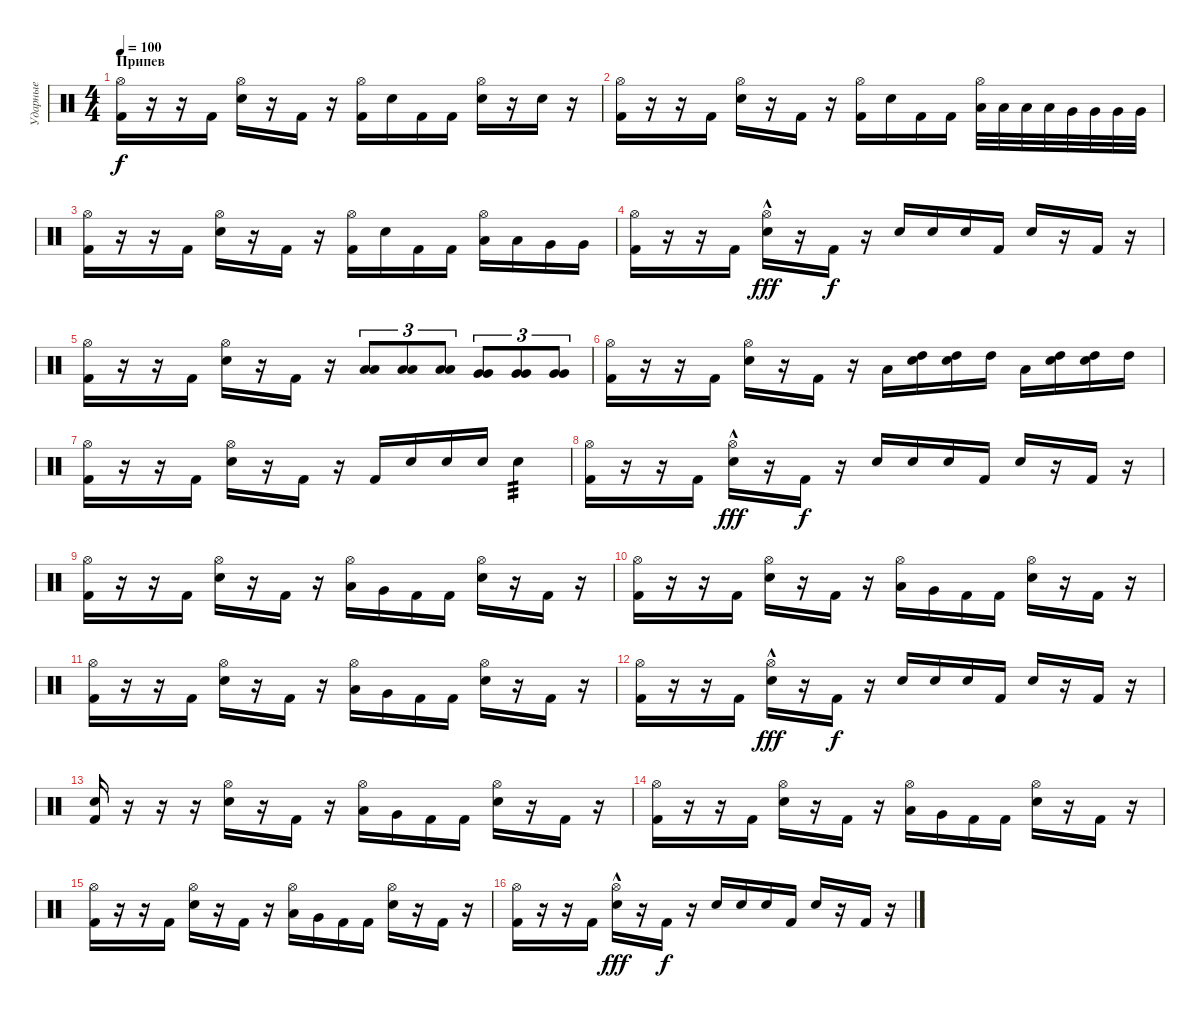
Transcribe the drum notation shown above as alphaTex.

\track ("Ударные" "Ударные") {instrument percussion}
\staff {score}
\articulation defaults
\ts (4 4)
\section ("" "Припев")
\tempo 100
\clef neutral
\ks c
("Kick (hit) 2" "Hi-Hat (open)").16{dy f} r.16 r.16 "Kick (hit) 2".16 ("Electric Snare (hit)" "Hi-Hat (open)").16 r.16 "Kick (hit) 2".16 r.16 ("Kick (hit) 2" "Hi-Hat (open)").16 "Electric Snare (hit)".16 "Kick (hit) 2".16 "Kick (hit) 2".16 ("Electric Snare (hit)" "Hi-Hat (open)").16 r.16 "Electric Snare (hit)".16 r.16 |
("Kick (hit) 2" "Hi-Hat (open)").16 r.16 r.16 "Kick (hit) 2".16 ("Electric Snare (hit)" "Hi-Hat (open)").16 r.16 "Kick (hit) 2".16 r.16 ("Kick (hit) 2" "Hi-Hat (open)").16 "Electric Snare (hit)".16 "Kick (hit) 2".16 "Kick (hit) 2".16 ("Low Tom (hit)" "Hi-Hat (open)").32 "Low Tom (hit)".32 "Low Tom (hit)".32 "Low Tom (hit)".32 "Very Low Tom (hit)".32 "Very Low Tom (hit)".32 "Very Low Tom (hit)".32 "Very Low Tom (hit)".32 |
("Kick (hit) 2" "Hi-Hat (open)").16 r.16 r.16 "Kick (hit) 2".16 ("Electric Snare (hit)" "Hi-Hat (open)").16 r.16 "Kick (hit) 2".16 r.16 ("Kick (hit) 2" "Hi-Hat (open)").16 "Electric Snare (hit)".16 "Kick (hit) 2".16 "Kick (hit) 2".16 ("Low Tom (hit)" "Hi-Hat (open)").16 "Low Tom (hit)".16 "Very Low Tom (hit)".16 "Very Low Tom (hit)".16 |
("Kick (hit) 2" "Hi-Hat (open)").16 r.16 r.16 "Kick (hit) 2".16 ("Electric Snare (hit)"{hac} "Hi-Hat (open)").16{dy fff} r.16 "Kick (hit) 2".16{dy f} r.16 "Electric Snare (hit)".16 "Electric Snare (hit)".16 "Electric Snare (hit)".16 "Kick (hit) 2".16 "Electric Snare (hit)".16 r.16 "Kick (hit) 2".16 r.16 |
("Kick (hit) 2" "Hi-Hat (open)").16 r.16 r.16 "Kick (hit) 2".16 ("Electric Snare (hit)" "Hi-Hat (open)").16 r.16 "Kick (hit) 2".16 r.16 ("Low Tom (hit)" "Low Tom (hit)").8{tu (3 2) bu 240} ("Low Tom (hit)" "Low Tom (hit)").8{tu (3 2) bu 240} ("Low Tom (hit)" "Low Tom (hit)").8{tu (3 2) bu 240} ("Very Low Tom (hit)" "Very Low Tom (hit)").8{tu (3 2) bu 240} ("Very Low Tom (hit)" "Very Low Tom (hit)").8{tu (3 2) bu 240} ("Very Low Tom (hit)" "Very Low Tom (hit)").8{tu (3 2) bu 240} |
("Kick (hit) 2" "Hi-Hat (open)").16 r.16 r.16 "Kick (hit) 2".16 ("Electric Snare (hit)" "Hi-Hat (open)").16 r.16 "Kick (hit) 2".16 r.16 "Low Tom (hit)".16 ("High Tom (hit)" "Electric Snare (hit)").16 ("High Tom (hit)" "Electric Snare (hit)").16 "High Tom (hit)".16 "Low Tom (hit)".16 ("High Tom (hit)" "Electric Snare (hit)").16 ("High Tom (hit)" "Electric Snare (hit)").16 "High Tom (hit)".16 |
("Kick (hit) 2" "Hi-Hat (open)").16 r.16 r.16 "Kick (hit) 2".16 ("Electric Snare (hit)" "Hi-Hat (open)").16 r.16 "Kick (hit) 2".16 r.16 "Kick (hit) 2".16 "Electric Snare (hit)".16 "Electric Snare (hit)".16 "Electric Snare (hit)".16 "Electric Snare (hit)".4{tp 3} |
("Kick (hit) 2" "Hi-Hat (open)").16 r.16 r.16 "Kick (hit) 2".16 ("Electric Snare (hit)"{hac} "Hi-Hat (open)").16{dy fff} r.16 "Kick (hit) 2".16{dy f} r.16 "Electric Snare (hit)".16 "Electric Snare (hit)".16 "Electric Snare (hit)".16 "Kick (hit) 2".16 "Electric Snare (hit)".16 r.16 "Kick (hit) 2".16 r.16 |
("Kick (hit) 2" "Hi-Hat (open)").16 r.16 r.16 "Kick (hit) 2".16 ("Electric Snare (hit)" "Hi-Hat (open)").16 r.16 "Kick (hit) 2".16 r.16 ("Low Tom (hit)" "Hi-Hat (open)").16 "Very Low Tom (hit)".16 "Kick (hit) 2".16 "Kick (hit) 2".16 ("Electric Snare (hit)" "Hi-Hat (open)").16 r.16 "Kick (hit) 2".16 r.16 |
("Kick (hit) 2" "Hi-Hat (open)").16 r.16 r.16 "Kick (hit) 2".16 ("Electric Snare (hit)" "Hi-Hat (open)").16 r.16 "Kick (hit) 2".16 r.16 ("Low Tom (hit)" "Hi-Hat (open)").16 "Very Low Tom (hit)".16 "Kick (hit) 2".16 "Kick (hit) 2".16 ("Electric Snare (hit)" "Hi-Hat (open)").16 r.16 "Kick (hit) 2".16 r.16 |
("Kick (hit) 2" "Hi-Hat (open)").16 r.16 r.16 "Kick (hit) 2".16 ("Electric Snare (hit)" "Hi-Hat (open)").16 r.16 "Kick (hit) 2".16 r.16 ("Low Tom (hit)" "Hi-Hat (open)").16 "Very Low Tom (hit)".16 "Kick (hit) 2".16 "Kick (hit) 2".16 ("Electric Snare (hit)" "Hi-Hat (open)").16 r.16 "Kick (hit) 2".16 r.16 |
("Kick (hit) 2" "Hi-Hat (open)").16 r.16 r.16 "Kick (hit) 2".16 ("Electric Snare (hit)"{hac} "Hi-Hat (open)").16{dy fff} r.16 "Kick (hit) 2".16{dy f} r.16 "Electric Snare (hit)".16 "Electric Snare (hit)".16 "Electric Snare (hit)".16 "Kick (hit) 2".16 "Electric Snare (hit)".16 r.16 "Kick (hit) 2".16 r.16 |
("Kick (hit) 2" "Electric Snare (hit)").16 r.16 r.16 r.16 ("Electric Snare (hit)" "Hi-Hat (open)").16 r.16 "Kick (hit) 2".16 r.16 ("Low Tom (hit)" "Hi-Hat (open)").16 "Very Low Tom (hit)".16 "Kick (hit) 2".16 "Kick (hit) 2".16 ("Electric Snare (hit)" "Hi-Hat (open)").16 r.16 "Kick (hit) 2".16 r.16 |
("Kick (hit) 2" "Hi-Hat (open)").16 r.16 r.16 "Kick (hit) 2".16 ("Electric Snare (hit)" "Hi-Hat (open)").16 r.16 "Kick (hit) 2".16 r.16 ("Low Tom (hit)" "Hi-Hat (open)").16 "Very Low Tom (hit)".16 "Kick (hit) 2".16 "Kick (hit) 2".16 ("Electric Snare (hit)" "Hi-Hat (open)").16 r.16 "Kick (hit) 2".16 r.16 |
("Kick (hit) 2" "Hi-Hat (open)").16 r.16 r.16 "Kick (hit) 2".16 ("Electric Snare (hit)" "Hi-Hat (open)").16 r.16 "Kick (hit) 2".16 r.16 ("Low Tom (hit)" "Hi-Hat (open)").16 "Very Low Tom (hit)".16 "Kick (hit) 2".16 "Kick (hit) 2".16 ("Electric Snare (hit)" "Hi-Hat (open)").16 r.16 "Kick (hit) 2".16 r.16 |
("Kick (hit) 2" "Hi-Hat (open)").16 r.16 r.16 "Kick (hit) 2".16 ("Electric Snare (hit)"{hac} "Hi-Hat (open)").16{dy fff} r.16 "Kick (hit) 2".16{dy f} r.16 "Electric Snare (hit)".16 "Electric Snare (hit)".16 "Electric Snare (hit)".16 "Kick (hit) 2".16 "Electric Snare (hit)".16 r.16 "Kick (hit) 2".16 r.16
